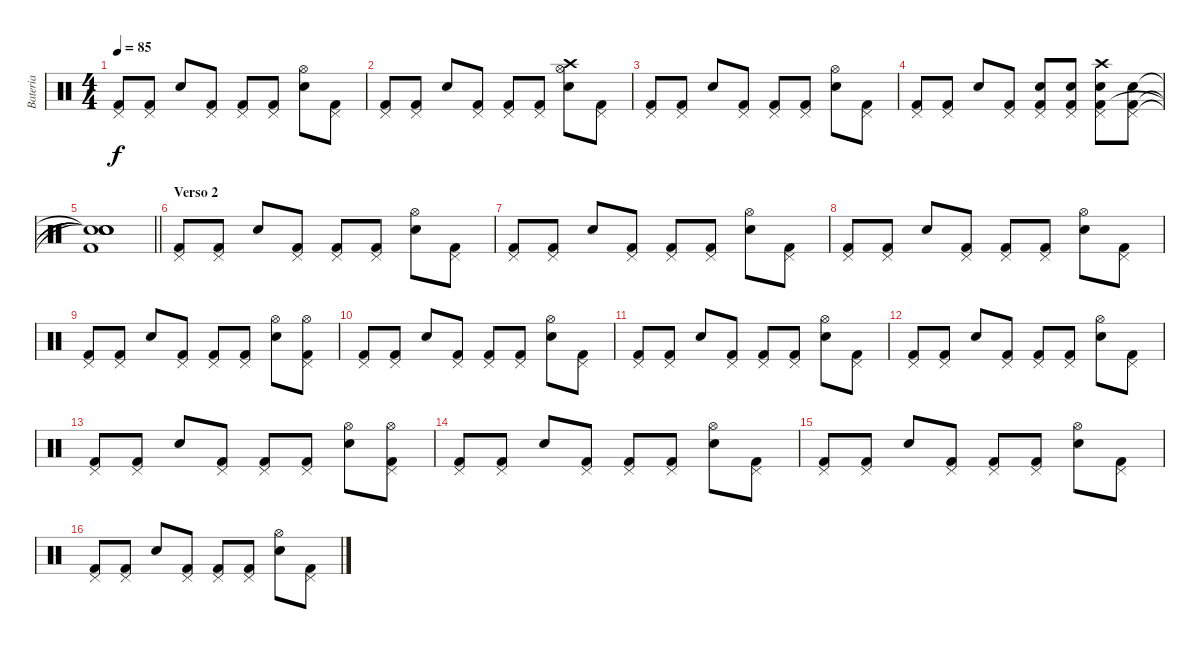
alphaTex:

\track ("Bateria" "Bateria") {instrument percussion}
\staff {score}
\articulation defaults
\ts (4 4)
\tempo 85
\clef neutral
\ks c
("Pedal Hi-Hat (hit)" "Kick (hit) 2").8{dy f} ("Pedal Hi-Hat (hit)" "Kick (hit) 2").8 "Snare (hit) 2".8 ("Pedal Hi-Hat (hit)" "Kick (hit) 2").8 ("Pedal Hi-Hat (hit)" "Kick (hit) 2").8 ("Pedal Hi-Hat (hit)" "Kick (hit) 2").8 ("Hi-Hat (open)" "Snare (hit) 2").8 ("Pedal Hi-Hat (hit)" "Kick (hit) 2").8 |
("Pedal Hi-Hat (hit)" "Kick (hit) 2").8 ("Pedal Hi-Hat (hit)" "Kick (hit) 2").8 "Snare (hit) 2".8 ("Pedal Hi-Hat (hit)" "Kick (hit) 2").8 ("Pedal Hi-Hat (hit)" "Kick (hit) 2").8 ("Pedal Hi-Hat (hit)" "Kick (hit) 2").8 ("Crash high (hit)" "Hi-Hat (open)" "Snare (hit) 2").8 ("Pedal Hi-Hat (hit)" "Kick (hit) 2").8 |
("Pedal Hi-Hat (hit)" "Kick (hit) 2").8 ("Pedal Hi-Hat (hit)" "Kick (hit) 2").8 "Snare (hit) 2".8 ("Pedal Hi-Hat (hit)" "Kick (hit) 2").8 ("Pedal Hi-Hat (hit)" "Kick (hit) 2").8 ("Pedal Hi-Hat (hit)" "Kick (hit) 2").8 ("Hi-Hat (open)" "Snare (hit) 2").8 ("Pedal Hi-Hat (hit)" "Kick (hit) 2").8 |
("Pedal Hi-Hat (hit)" "Kick (hit) 2").8 ("Pedal Hi-Hat (hit)" "Kick (hit) 2").8 "Snare (hit) 2".8 ("Pedal Hi-Hat (hit)" "Kick (hit) 2").8 ("Snare (hit) 2" "Pedal Hi-Hat (hit)" "Kick (hit) 2").8 ("Snare (hit) 2" "Pedal Hi-Hat (hit)" "Kick (hit) 2").8 ("Crash high (hit)" "Snare (hit) 2" "Pedal Hi-Hat (hit)" "Kick (hit) 2").8 ("Snare (hit) 2" "Pedal Hi-Hat (hit)" "Kick (hit) 2").8 |
\barLineRight lightlight
("Snare (hit)"{t} "Snare (hit)"{t} "Snare (hit)"{t} "Snare (hit)"{t} "Kick (hit) 2").1 |
\section ("" "Verso 2")
("Pedal Hi-Hat (hit)" "Kick (hit) 2").8 ("Pedal Hi-Hat (hit)" "Kick (hit) 2").8 "Snare (hit) 2".8 ("Pedal Hi-Hat (hit)" "Kick (hit) 2").8 ("Pedal Hi-Hat (hit)" "Kick (hit) 2").8 ("Pedal Hi-Hat (hit)" "Kick (hit) 2").8 ("Hi-Hat (open)" "Snare (hit) 2").8 ("Pedal Hi-Hat (hit)" "Kick (hit) 2").8 |
("Pedal Hi-Hat (hit)" "Kick (hit) 2").8 ("Pedal Hi-Hat (hit)" "Kick (hit) 2").8 "Snare (hit) 2".8 ("Pedal Hi-Hat (hit)" "Kick (hit) 2").8 ("Pedal Hi-Hat (hit)" "Kick (hit) 2").8 ("Pedal Hi-Hat (hit)" "Kick (hit) 2").8 ("Hi-Hat (open)" "Snare (hit) 2").8 ("Pedal Hi-Hat (hit)" "Kick (hit) 2").8 |
("Pedal Hi-Hat (hit)" "Kick (hit) 2").8 ("Pedal Hi-Hat (hit)" "Kick (hit) 2").8 "Snare (hit) 2".8 ("Pedal Hi-Hat (hit)" "Kick (hit) 2").8 ("Pedal Hi-Hat (hit)" "Kick (hit) 2").8 ("Pedal Hi-Hat (hit)" "Kick (hit) 2").8 ("Hi-Hat (open)" "Snare (hit) 2").8 ("Pedal Hi-Hat (hit)" "Kick (hit) 2").8 |
("Pedal Hi-Hat (hit)" "Kick (hit) 2").8 ("Pedal Hi-Hat (hit)" "Kick (hit) 2").8 "Snare (hit) 2".8 ("Pedal Hi-Hat (hit)" "Kick (hit) 2").8 ("Pedal Hi-Hat (hit)" "Kick (hit) 2").8 ("Pedal Hi-Hat (hit)" "Kick (hit) 2").8 ("Hi-Hat (open)" "Snare (hit) 2").8 ("Hi-Hat (open)" "Pedal Hi-Hat (hit)" "Kick (hit) 2").8 |
("Pedal Hi-Hat (hit)" "Kick (hit) 2").8 ("Pedal Hi-Hat (hit)" "Kick (hit) 2").8 "Snare (hit) 2".8 ("Pedal Hi-Hat (hit)" "Kick (hit) 2").8 ("Pedal Hi-Hat (hit)" "Kick (hit) 2").8 ("Pedal Hi-Hat (hit)" "Kick (hit) 2").8 ("Hi-Hat (open)" "Snare (hit) 2").8 ("Pedal Hi-Hat (hit)" "Kick (hit) 2").8 |
("Pedal Hi-Hat (hit)" "Kick (hit) 2").8 ("Pedal Hi-Hat (hit)" "Kick (hit) 2").8 "Snare (hit) 2".8 ("Pedal Hi-Hat (hit)" "Kick (hit) 2").8 ("Pedal Hi-Hat (hit)" "Kick (hit) 2").8 ("Pedal Hi-Hat (hit)" "Kick (hit) 2").8 ("Hi-Hat (open)" "Snare (hit) 2").8 ("Pedal Hi-Hat (hit)" "Kick (hit) 2").8 |
("Pedal Hi-Hat (hit)" "Kick (hit) 2").8 ("Pedal Hi-Hat (hit)" "Kick (hit) 2").8 "Snare (hit) 2".8 ("Pedal Hi-Hat (hit)" "Kick (hit) 2").8 ("Pedal Hi-Hat (hit)" "Kick (hit) 2").8 ("Pedal Hi-Hat (hit)" "Kick (hit) 2").8 ("Hi-Hat (open)" "Snare (hit) 2").8 ("Pedal Hi-Hat (hit)" "Kick (hit) 2").8 |
("Pedal Hi-Hat (hit)" "Kick (hit) 2").8 ("Pedal Hi-Hat (hit)" "Kick (hit) 2").8 "Snare (hit) 2".8 ("Pedal Hi-Hat (hit)" "Kick (hit) 2").8 ("Pedal Hi-Hat (hit)" "Kick (hit) 2").8 ("Pedal Hi-Hat (hit)" "Kick (hit) 2").8 ("Hi-Hat (open)" "Snare (hit) 2").8 ("Hi-Hat (open)" "Pedal Hi-Hat (hit)" "Kick (hit) 2").8 |
("Pedal Hi-Hat (hit)" "Kick (hit) 2").8 ("Pedal Hi-Hat (hit)" "Kick (hit) 2").8 "Snare (hit) 2".8 ("Pedal Hi-Hat (hit)" "Kick (hit) 2").8 ("Pedal Hi-Hat (hit)" "Kick (hit) 2").8 ("Pedal Hi-Hat (hit)" "Kick (hit) 2").8 ("Hi-Hat (open)" "Snare (hit) 2").8 ("Pedal Hi-Hat (hit)" "Kick (hit) 2").8 |
("Pedal Hi-Hat (hit)" "Kick (hit) 2").8 ("Pedal Hi-Hat (hit)" "Kick (hit) 2").8 "Snare (hit) 2".8 ("Pedal Hi-Hat (hit)" "Kick (hit) 2").8 ("Pedal Hi-Hat (hit)" "Kick (hit) 2").8 ("Pedal Hi-Hat (hit)" "Kick (hit) 2").8 ("Hi-Hat (open)" "Snare (hit) 2").8 ("Pedal Hi-Hat (hit)" "Kick (hit) 2").8 |
("Pedal Hi-Hat (hit)" "Kick (hit) 2").8 ("Pedal Hi-Hat (hit)" "Kick (hit) 2").8 "Snare (hit) 2".8 ("Pedal Hi-Hat (hit)" "Kick (hit) 2").8 ("Pedal Hi-Hat (hit)" "Kick (hit) 2").8 ("Pedal Hi-Hat (hit)" "Kick (hit) 2").8 ("Hi-Hat (open)" "Snare (hit) 2").8 ("Pedal Hi-Hat (hit)" "Kick (hit) 2").8
